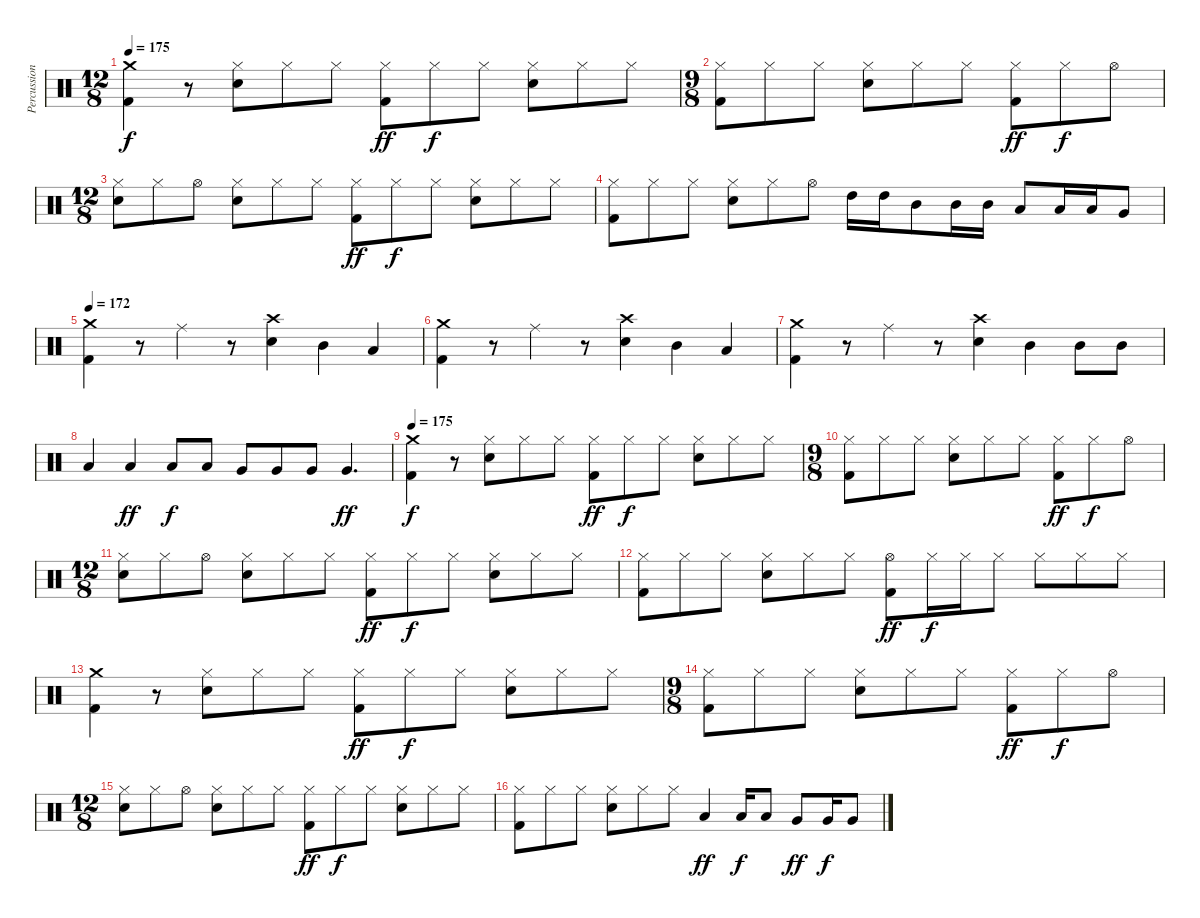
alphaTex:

\track ("Percussion" "Percussion") {instrument percussion}
\staff {score}
\articulation defaults
\ts (12 8)
\tempo 175
\clef neutral
\ks c
("Kick (hit) 2" "Crash medium (hit)").4{dy f} r.8 ("Snare (hit) 2" "Hi-Hat (closed)").8 "Hi-Hat (closed)".8 "Hi-Hat (closed)".8 ("Kick (hit) 2" "Hi-Hat (closed)").8{dy ff} "Hi-Hat (closed)".8{dy f} "Hi-Hat (closed)".8 ("Snare (hit) 2" "Hi-Hat (closed)").8 "Hi-Hat (closed)".8 "Hi-Hat (closed)".8 |
\ts (9 8)
("Kick (hit) 2" "Hi-Hat (closed)").8 "Hi-Hat (closed)".8 "Hi-Hat (closed)".8 ("Snare (hit) 2" "Hi-Hat (closed)").8 "Hi-Hat (closed)".8 "Hi-Hat (closed)".8 ("Kick (hit) 2" "Hi-Hat (closed)").8{dy ff} "Hi-Hat (closed)".8{dy f} "Hi-Hat (open)".8 |
\ts (12 8)
("Snare (hit) 2" "Hi-Hat (closed)").8 "Hi-Hat (closed)".8 "Hi-Hat (open)".8 ("Snare (hit) 2" "Hi-Hat (closed)").8 "Hi-Hat (closed)".8 "Hi-Hat (closed)".8 ("Kick (hit) 2" "Hi-Hat (closed)").8{dy ff} "Hi-Hat (closed)".8{dy f} "Hi-Hat (closed)".8 ("Snare (hit) 2" "Hi-Hat (closed)").8 "Hi-Hat (closed)".8 "Hi-Hat (closed)".8 |
("Kick (hit) 2" "Hi-Hat (closed)").8 "Hi-Hat (closed)".8 "Hi-Hat (closed)".8 ("Snare (hit) 2" "Hi-Hat (closed)").8 "Hi-Hat (closed)".8 "Hi-Hat (open)".8 "High Tom (hit)".16 "High Tom (hit)".16 "Mid Tom (hit)".8 "Mid Tom (hit)".16 "Mid Tom (hit)".16 "Low Tom (hit)".8 "Low Tom (hit)".16 "Low Tom (hit)".16 "Very Low Tom (hit)".8 |
\tempo 172
("Kick (hit) 2" "Crash medium (hit)").4 r.8 "Ride (middle)".4 r.8 ("Snare (hit) 2" "Crash high (hit)").4 "Mid Tom (hit)".4 "Low Tom (hit)".4 |
("Kick (hit) 2" "Crash medium (hit)").4 r.8 "Ride (middle)".4 r.8 ("Snare (hit) 2" "Crash high (hit)").4 "Mid Tom (hit)".4 "Low Tom (hit)".4 |
("Kick (hit) 2" "Crash medium (hit)").4 r.8 "Ride (middle)".4 r.8 ("Snare (hit) 2" "Crash high (hit)").4 "Mid Tom (hit)".4 "Mid Tom (hit)".8 "Mid Tom (hit)".8 |
"Low Tom (hit)".4 "Low Tom (hit)".4{dy ff} "Low Tom (hit)".8{dy f} "Low Tom (hit)".8 "Very Low Tom (hit)".8 "Very Low Tom (hit)".8 "Very Low Tom (hit)".8 "Very Low Tom (hit)".4{d dy ff} |
\tempo 175
("Kick (hit) 2" "Crash medium (hit)").4{dy f} r.8 ("Snare (hit) 2" "Hi-Hat (closed)").8 "Hi-Hat (closed)".8 "Hi-Hat (closed)".8 ("Kick (hit) 2" "Hi-Hat (closed)").8{dy ff} "Hi-Hat (closed)".8{dy f} "Hi-Hat (closed)".8 ("Snare (hit) 2" "Hi-Hat (closed)").8 "Hi-Hat (closed)".8 "Hi-Hat (closed)".8 |
\ts (9 8)
("Kick (hit) 2" "Hi-Hat (closed)").8 "Hi-Hat (closed)".8 "Hi-Hat (closed)".8 ("Snare (hit) 2" "Hi-Hat (closed)").8 "Hi-Hat (closed)".8 "Hi-Hat (closed)".8 ("Kick (hit) 2" "Hi-Hat (closed)").8{dy ff} "Hi-Hat (closed)".8{dy f} "Hi-Hat (open)".8 |
\ts (12 8)
("Snare (hit) 2" "Hi-Hat (closed)").8 "Hi-Hat (closed)".8 "Hi-Hat (open)".8 ("Snare (hit) 2" "Hi-Hat (closed)").8 "Hi-Hat (closed)".8 "Hi-Hat (closed)".8 ("Kick (hit) 2" "Hi-Hat (closed)").8{dy ff} "Hi-Hat (closed)".8{dy f} "Hi-Hat (closed)".8 ("Snare (hit) 2" "Hi-Hat (closed)").8 "Hi-Hat (closed)".8 "Hi-Hat (closed)".8 |
("Kick (hit) 2" "Hi-Hat (closed)").8 "Hi-Hat (closed)".8 "Hi-Hat (closed)".8 ("Snare (hit) 2" "Hi-Hat (closed)").8 "Hi-Hat (closed)".8 "Hi-Hat (closed)".8 ("Kick (hit) 2" "Hi-Hat (open)").8{dy ff} "Hi-Hat (closed)".16{dy f} "Hi-Hat (closed)".16 "Hi-Hat (closed)".8 "Hi-Hat (closed)".8 "Hi-Hat (closed)".8 "Hi-Hat (closed)".8 |
("Kick (hit) 2" "Crash medium (hit)").4 r.8 ("Snare (hit) 2" "Hi-Hat (closed)").8 "Hi-Hat (closed)".8 "Hi-Hat (closed)".8 ("Kick (hit) 2" "Hi-Hat (closed)").8{dy ff} "Hi-Hat (closed)".8{dy f} "Hi-Hat (closed)".8 ("Snare (hit) 2" "Hi-Hat (closed)").8 "Hi-Hat (closed)".8 "Hi-Hat (closed)".8 |
\ts (9 8)
("Kick (hit) 2" "Hi-Hat (closed)").8 "Hi-Hat (closed)".8 "Hi-Hat (closed)".8 ("Snare (hit) 2" "Hi-Hat (closed)").8 "Hi-Hat (closed)".8 "Hi-Hat (closed)".8 ("Kick (hit) 2" "Hi-Hat (closed)").8{dy ff} "Hi-Hat (closed)".8{dy f} "Hi-Hat (open)".8 |
\ts (12 8)
("Snare (hit) 2" "Hi-Hat (closed)").8 "Hi-Hat (closed)".8 "Hi-Hat (open)".8 ("Snare (hit) 2" "Hi-Hat (closed)").8 "Hi-Hat (closed)".8 "Hi-Hat (closed)".8 ("Kick (hit) 2" "Hi-Hat (closed)").8{dy ff} "Hi-Hat (closed)".8{dy f} "Hi-Hat (closed)".8 ("Snare (hit) 2" "Hi-Hat (closed)").8 "Hi-Hat (closed)".8 "Hi-Hat (closed)".8 |
("Kick (hit) 2" "Hi-Hat (closed)").8 "Hi-Hat (closed)".8 "Hi-Hat (closed)".8 ("Snare (hit) 2" "Hi-Hat (closed)").8 "Hi-Hat (closed)".8 "Hi-Hat (closed)".8 "Low Tom (hit)".4{dy ff} "Low Tom (hit)".16{dy f} "Low Tom (hit)".8 "Very Low Tom (hit)".8{dy ff} "Very Low Tom (hit)".16{dy f} "Very Low Tom (hit)".8
